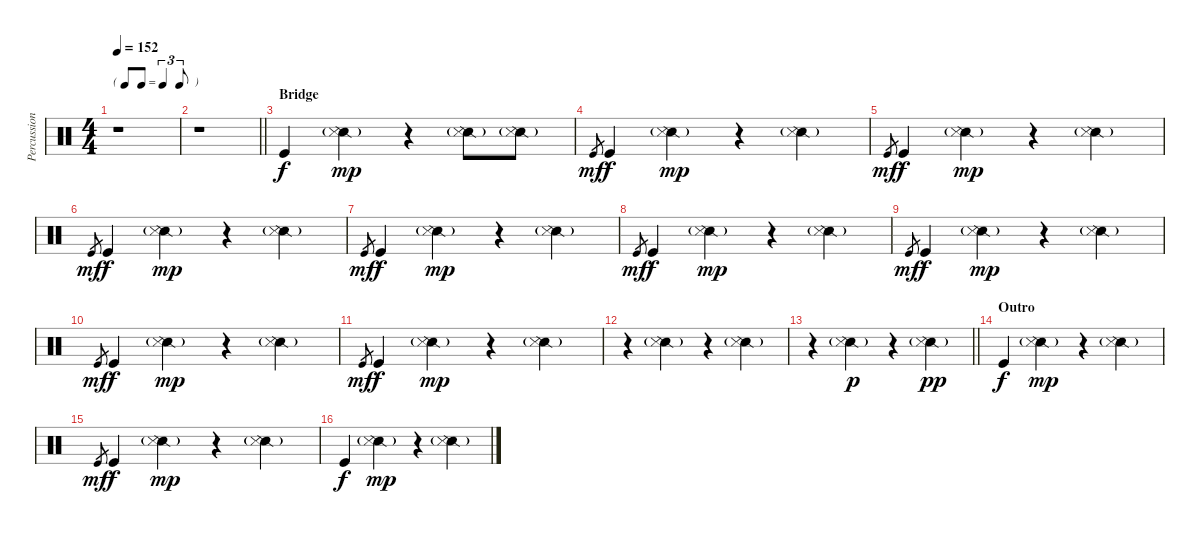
\track ("Percussion" "Percussion") {instrument percussion}
\staff {score}
\articulation defaults
\ts (4 4)
\tf triplet8th
\tempo 152
\clef neutral
\ks c
r.1{dy pp} |
\barLineRight lightlight
r.1 |
\section ("" "Bridge")
"Kick (hit)".4{dy f volume 9} ("Snare (side stick) 2"{g} "Snare (side stick) 3").4{dy mp} r.4 ("Snare (side stick) 2"{g} "Snare (side stick) 3").8 ("Snare (side stick) 2"{g} "Snare (side stick) 3").8 |
"Kick (hit)".8{gr dy mf} "Kick (hit)".4{dy f} ("Snare (side stick) 2"{g} "Snare (side stick) 3").4{dy mp} r.4 ("Snare (side stick) 2"{g} "Snare (side stick) 3").4 |
"Kick (hit)".8{gr dy mf} "Kick (hit)".4{dy f} ("Snare (side stick) 2"{g} "Snare (side stick) 3").4{dy mp} r.4 ("Snare (side stick) 2"{g} "Snare (side stick) 3").4 |
"Kick (hit)".8{gr dy mf} "Kick (hit)".4{dy f} ("Snare (side stick) 2"{g} "Snare (side stick) 3").4{dy mp} r.4 ("Snare (side stick) 2"{g} "Snare (side stick) 3").4 |
"Kick (hit)".8{gr dy mf} "Kick (hit)".4{dy f} ("Snare (side stick) 2"{g} "Snare (side stick) 3").4{dy mp} r.4 ("Snare (side stick) 2"{g} "Snare (side stick) 3").4 |
"Kick (hit)".8{gr dy mf} "Kick (hit)".4{dy f} ("Snare (side stick) 2"{g} "Snare (side stick) 3").4{dy mp} r.4 ("Snare (side stick) 2"{g} "Snare (side stick) 3").4 |
"Kick (hit)".8{gr dy mf} "Kick (hit)".4{dy f} ("Snare (side stick) 2"{g} "Snare (side stick) 3").4{dy mp} r.4 ("Snare (side stick) 2"{g} "Snare (side stick) 3").4 |
"Kick (hit)".8{gr dy mf} "Kick (hit)".4{dy f} ("Snare (side stick) 2"{g} "Snare (side stick) 3").4{dy mp} r.4 ("Snare (side stick) 2"{g} "Snare (side stick) 3").4 |
"Kick (hit)".8{gr dy mf} "Kick (hit)".4{dy f} ("Snare (side stick) 2"{g} "Snare (side stick) 3").4{dy mp} r.4 ("Snare (side stick) 2"{g} "Snare (side stick) 3").4 |
r.4 ("Snare (side stick) 2"{g} "Snare (side stick) 3").4 r.4 ("Snare (side stick) 2"{g} "Snare (side stick) 3").4 |
\barLineRight lightlight
r.4 ("Snare (side stick) 2"{g} "Snare (side stick) 3").4{dy p} r.4 ("Snare (side stick) 2"{g} "Snare (side stick) 3").4{dy pp} |
\section ("" "Outro")
"Kick (hit)".4{dy f} ("Snare (side stick) 2"{g} "Snare (side stick) 3").4{dy mp} r.4 ("Snare (side stick) 2"{g} "Snare (side stick) 3").4 |
"Kick (hit)".8{gr dy mf} "Kick (hit)".4{dy f} ("Snare (side stick) 2"{g} "Snare (side stick) 3").4{dy mp} r.4 ("Snare (side stick) 2"{g} "Snare (side stick) 3").4 |
"Kick (hit)".4{dy f} ("Snare (side stick) 2"{g} "Snare (side stick) 3").4{dy mp} r.4 ("Snare (side stick) 2"{g} "Snare (side stick) 3").4
